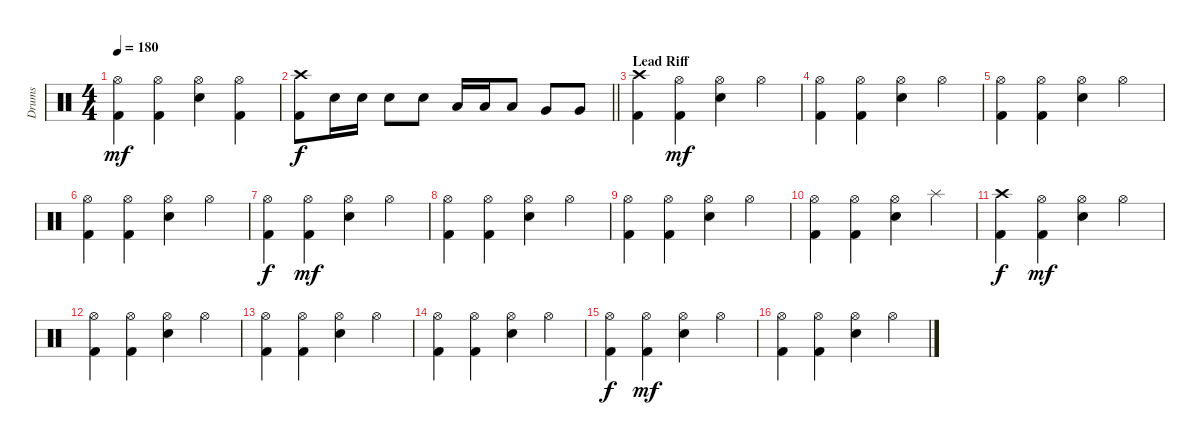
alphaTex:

\track ("Drums" "Drums") {instrument percussion}
\staff {score}
\articulation defaults
\ts (4 4)
\tempo 180
\clef neutral
\ks c
("Hi-Hat (open)" "Kick (hit) 2").4{dy mf} ("Hi-Hat (open)" "Kick (hit) 2").4 ("Hi-Hat (open)" "Snare (hit) 2").4 ("Hi-Hat (open)" "Kick (hit) 2").4 |
\barLineRight lightlight
("Crash high (hit)" "Kick (hit) 2").8{dy f} "Snare (hit) 2".16 "Snare (hit) 2".16 "Snare (hit) 2".8 "Snare (hit) 2".8 "Low Tom (hit)".16 "Low Tom (hit)".16 "Low Tom (hit)".8 "Very Low Tom (hit)".8 "Very Low Tom (hit)".8 |
\section ("" "Lead Riff")
("Crash high (hit)" "Kick (hit) 2").4 ("Hi-Hat (open)" "Kick (hit) 2").4{dy mf} ("Hi-Hat (open)" "Snare (hit) 2").4 "Hi-Hat (open)".4 |
("Hi-Hat (open)" "Kick (hit) 2").4 ("Hi-Hat (open)" "Kick (hit) 2").4 ("Hi-Hat (open)" "Snare (hit) 2").4 "Hi-Hat (open)".4 |
("Hi-Hat (open)" "Kick (hit) 2").4 ("Hi-Hat (open)" "Kick (hit) 2").4 ("Hi-Hat (open)" "Snare (hit) 2").4 "Hi-Hat (open)".4 |
("Hi-Hat (open)" "Kick (hit) 2").4 ("Hi-Hat (open)" "Kick (hit) 2").4 ("Hi-Hat (open)" "Snare (hit) 2").4 "Hi-Hat (open)".4 |
("Hi-Hat (open)" "Kick (hit) 2").4{dy f} ("Hi-Hat (open)" "Kick (hit) 2").4{dy mf} ("Hi-Hat (open)" "Snare (hit) 2").4 "Hi-Hat (open)".4 |
("Hi-Hat (open)" "Kick (hit) 2").4 ("Hi-Hat (open)" "Kick (hit) 2").4 ("Hi-Hat (open)" "Snare (hit) 2").4 "Hi-Hat (open)".4 |
("Hi-Hat (open)" "Kick (hit) 2").4 ("Hi-Hat (open)" "Kick (hit) 2").4 ("Hi-Hat (open)" "Snare (hit) 2").4 "Hi-Hat (open)".4 |
("Hi-Hat (open)" "Kick (hit) 2").4 ("Hi-Hat (open)" "Kick (hit) 2").4 ("Hi-Hat (open)" "Snare (hit) 2").4 "Splash (hit)".4 |
("Crash high (hit)" "Kick (hit) 2").4{dy f} ("Hi-Hat (open)" "Kick (hit) 2").4{dy mf} ("Hi-Hat (open)" "Snare (hit) 2").4 "Hi-Hat (open)".4 |
("Hi-Hat (open)" "Kick (hit) 2").4 ("Hi-Hat (open)" "Kick (hit) 2").4 ("Hi-Hat (open)" "Snare (hit) 2").4 "Hi-Hat (open)".4 |
("Hi-Hat (open)" "Kick (hit) 2").4 ("Hi-Hat (open)" "Kick (hit) 2").4 ("Hi-Hat (open)" "Snare (hit) 2").4 "Hi-Hat (open)".4 |
("Hi-Hat (open)" "Kick (hit) 2").4 ("Hi-Hat (open)" "Kick (hit) 2").4 ("Hi-Hat (open)" "Snare (hit) 2").4 "Hi-Hat (open)".4 |
("Hi-Hat (open)" "Kick (hit) 2").4{dy f} ("Hi-Hat (open)" "Kick (hit) 2").4{dy mf} ("Hi-Hat (open)" "Snare (hit) 2").4 "Hi-Hat (open)".4 |
("Hi-Hat (open)" "Kick (hit) 2").4 ("Hi-Hat (open)" "Kick (hit) 2").4 ("Hi-Hat (open)" "Snare (hit) 2").4 "Hi-Hat (open)".4
